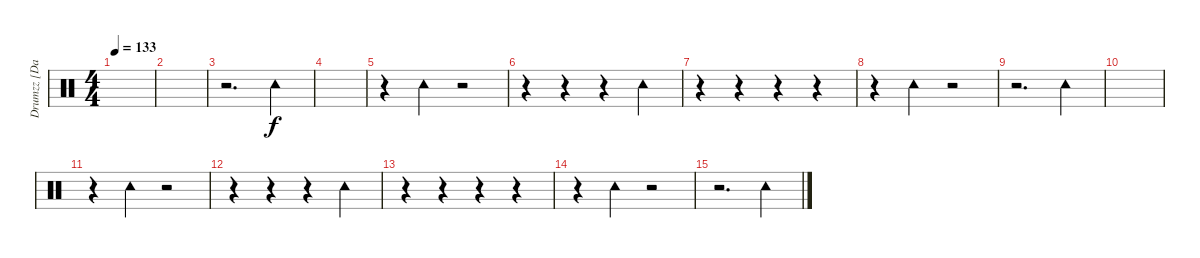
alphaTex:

\track ("Drumzz [Dave Grohl]" "Drumzz [Da") {instrument percussion}
\staff {score}
\articulation defaults
\ts (4 4)
\tempo 133
\clef neutral
\ks c
|
|
r.2{d} "Tambourine (hit)".4{volume 7 balance 14} |
|
r.4 "Tambourine (hit)".4 r.2 |
r.4 r.4 r.4 "Tambourine (hit)".4 |
r.4 r.4 r.4 r.4 |
r.4 "Tambourine (hit)".4 r.2 |
r.2{d} "Tambourine (hit)".4 |
|
r.4 "Tambourine (hit)".4 r.2 |
r.4 r.4 r.4 "Tambourine (hit)".4 |
r.4 r.4 r.4 r.4 |
r.4 "Tambourine (hit)".4 r.2 |
r.2{d} "Tambourine (hit)".4
